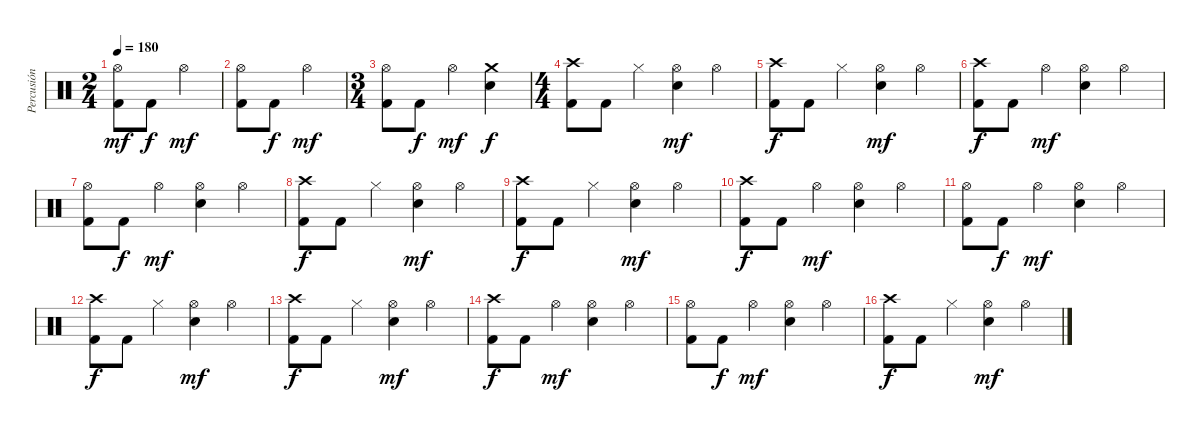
\track ("Percusión" "Percusión") {instrument percussion}
\staff {score}
\articulation defaults
\ts (2 4)
\tempo 180
\clef neutral
\ks c
("Hi-Hat (open)" "Kick (hit) 2").8{dy mf} "Kick (hit) 2".8{dy f} "Hi-Hat (open)".4{dy mf} |
("Hi-Hat (open)" "Kick (hit) 2").8 "Kick (hit) 2".8{dy f} "Hi-Hat (open)".4{dy mf} |
\ts (3 4)
("Hi-Hat (open)" "Kick (hit) 2").8 "Kick (hit) 2".8{dy f} "Hi-Hat (open)".4{dy mf} ("Crash medium (hit)" "Snare (hit) 2").4{dy f} |
\ts (4 4)
("Crash high (hit)" "Kick (hit) 2").8 "Kick (hit) 2".8 "Hi-Hat (closed)".4 ("Hi-Hat (open)" "Snare (hit) 2").4{dy mf} "Hi-Hat (open)".4 |
("Crash high (hit)" "Kick (hit) 2").8{dy f} "Kick (hit) 2".8 "Hi-Hat (closed)".4 ("Hi-Hat (open)" "Snare (hit) 2").4{dy mf} "Hi-Hat (open)".4 |
("Crash high (hit)" "Kick (hit) 2").8{dy f} "Kick (hit) 2".8 "Hi-Hat (open)".4{dy mf} ("Hi-Hat (open)" "Snare (hit) 2").4 "Hi-Hat (open)".4 |
("Hi-Hat (open)" "Kick (hit) 2").8 "Kick (hit) 2".8{dy f} "Hi-Hat (open)".4{dy mf} ("Hi-Hat (open)" "Snare (hit) 2").4 "Hi-Hat (open)".4 |
("Crash high (hit)" "Kick (hit) 2").8{dy f} "Kick (hit) 2".8 "Hi-Hat (closed)".4 ("Hi-Hat (open)" "Snare (hit) 2").4{dy mf} "Hi-Hat (open)".4 |
("Crash high (hit)" "Kick (hit) 2").8{dy f} "Kick (hit) 2".8 "Hi-Hat (closed)".4 ("Hi-Hat (open)" "Snare (hit) 2").4{dy mf} "Hi-Hat (open)".4 |
("Crash high (hit)" "Kick (hit) 2").8{dy f} "Kick (hit) 2".8 "Hi-Hat (open)".4{dy mf} ("Hi-Hat (open)" "Snare (hit) 2").4 "Hi-Hat (open)".4 |
("Hi-Hat (open)" "Kick (hit) 2").8 "Kick (hit) 2".8{dy f} "Hi-Hat (open)".4{dy mf} ("Hi-Hat (open)" "Snare (hit) 2").4 "Hi-Hat (open)".4 |
("Crash high (hit)" "Kick (hit) 2").8{dy f} "Kick (hit) 2".8 "Hi-Hat (closed)".4 ("Hi-Hat (open)" "Snare (hit) 2").4{dy mf} "Hi-Hat (open)".4 |
("Crash high (hit)" "Kick (hit) 2").8{dy f} "Kick (hit) 2".8 "Hi-Hat (closed)".4 ("Hi-Hat (open)" "Snare (hit) 2").4{dy mf} "Hi-Hat (open)".4 |
("Crash high (hit)" "Kick (hit) 2").8{dy f} "Kick (hit) 2".8 "Hi-Hat (open)".4{dy mf} ("Hi-Hat (open)" "Snare (hit) 2").4 "Hi-Hat (open)".4 |
("Hi-Hat (open)" "Kick (hit) 2").8 "Kick (hit) 2".8{dy f} "Hi-Hat (open)".4{dy mf} ("Hi-Hat (open)" "Snare (hit) 2").4 "Hi-Hat (open)".4 |
("Crash high (hit)" "Kick (hit) 2").8{dy f} "Kick (hit) 2".8 "Hi-Hat (closed)".4 ("Hi-Hat (open)" "Snare (hit) 2").4{dy mf} "Hi-Hat (open)".4
